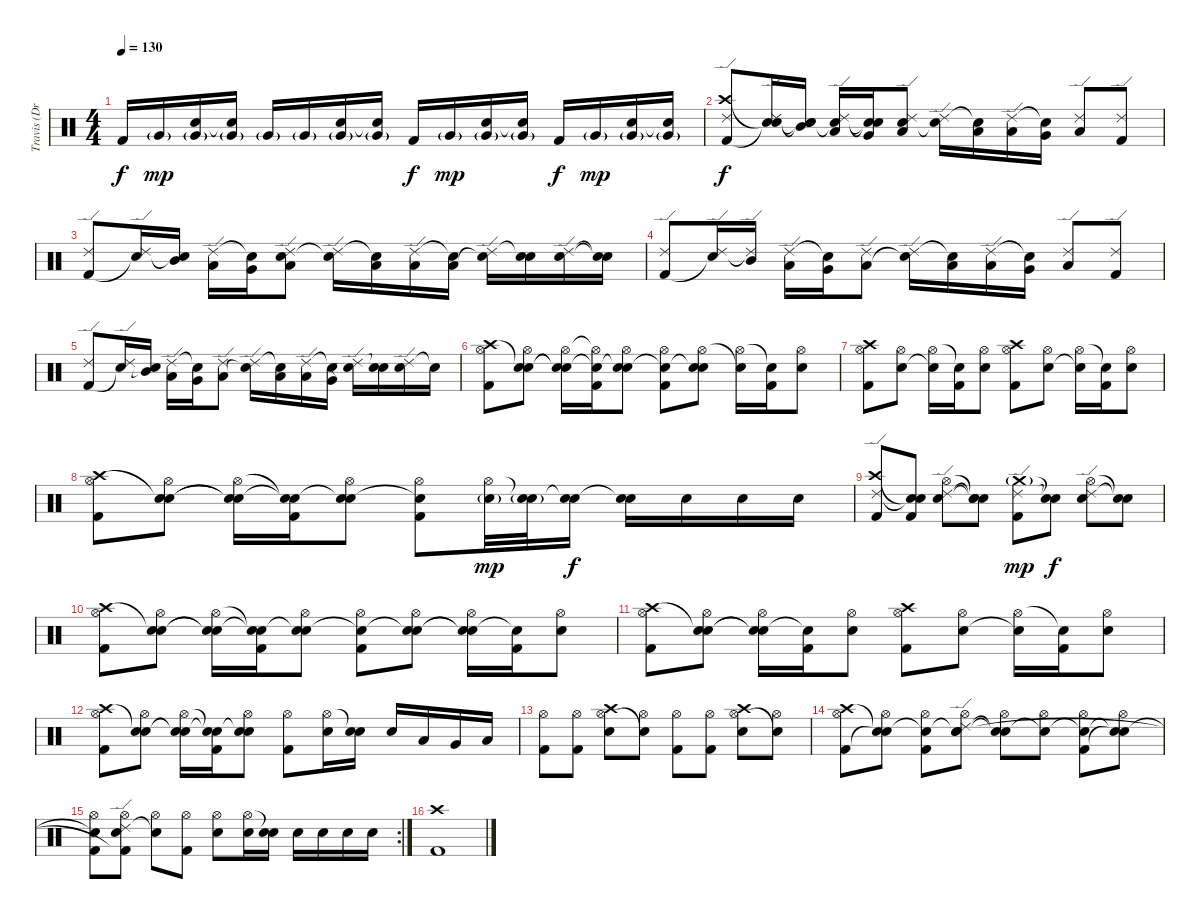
\track ("Travis (Drums)" "Travis (Dr") {instrument percussion}
\staff {score}
\articulation defaults
\ts (4 4)
\tempo 130
\clef neutral
\ks c "Kick (hit) 2".16{dy f} "Very Low Tom (hit)"{g}.16{dy mp}
("Electric Snare (hit)" "Very Low Tom (hit)"{g}).16 ("Snare (hit)"{t} "Very Low Tom (hit)"{g}).16 "Very Low Tom (hit)"{g}.16 "Very Low Tom (hit)"{g}.16 ("Electric Snare (hit)" "Very Low Tom (hit)"{g}).16 ("Snare (hit)"{t} "Very Low Tom (hit)"{g}).16 "Kick (hit) 2".16{dy f} "Very Low Tom (hit)"{g}.16{dy mp} ("Electric Snare (hit)" "Very Low Tom (hit)"{g}).16 ("Snare (hit)"{t} "Very Low Tom (hit)"{g}).16 "Kick (hit) 2".16{dy f} "Very Low Tom (hit)"{g}.16{dy mp} ("Electric Snare (hit)" "Very Low Tom (hit)"{g}).16 ("Snare (hit)"{t} "Very Low Tom (hit)"{g}).16 |
("Crash high (hit)" "Ride (edge) 2" "Kick (hit) 2").8{dy f} ("Snare (hit)"{t} "Ride (edge) 2" "Snare (hit)"{t}).16 ("Snare (hit)"{t} "Snare (hit)"{t} "Mid Tom (hit)").16 ("Snare (hit)"{t} "Ride (edge) 2" "Low Tom (hit)").16 ("Snare (hit)"{t} "Snare (hit)"{t} "Very Low Tom (hit)").16 ("Ride (edge) 2" "Electric Snare (hit)" "Low Floor Tom (hit)").8 ("Ride (edge) 2" "Snare (hit)"{t}).16 ("Snare (hit)"{t} "Low Tom (hit)").16 ("Ride (edge) 2" "Low Tom (hit)").16 ("Snare (hit)"{t} "Very Low Tom (hit)").16 ("Ride (edge) 2" "Low Floor Tom (hit)").8 ("Ride (edge) 2" "Kick (hit) 2").8 |
("Ride (edge) 2" "Kick (hit) 2").8 ("Ride (edge) 2" "Snare (hit)"{t}).16 ("Snare (hit)"{t} "Mid Tom (hit)").16 ("Ride (edge) 2" "Low Tom (hit)").16 ("Snare (hit)"{t} "Very Low Tom (hit)").16 ("Ride (edge) 2" "Electric Snare (hit)" "Low Floor Tom (hit)").8 ("Ride (edge) 2" "Snare (hit)"{t}).16 ("Snare (hit)"{t} "Low Tom (hit)").16 ("Ride (edge) 2" "Low Tom (hit)").16 ("Snare (hit)"{t} "Low Tom (hit)").16 ("Ride (edge) 2" "Electric Snare (hit)"{t}).16 ("Snare (hit)"{t} "Electric Snare (hit)").16 ("Ride (edge) 2" "Electric Snare (hit)").16 ("Snare (hit)"{t} "Snare (hit)"{t}).16 |
("Ride (edge) 2" "Kick (hit) 2").8 ("Ride (edge) 2" "Snare (hit)"{t}).16 ("Ride (edge) 2"{t} "Mid Tom (hit)").16 ("Ride (edge) 2" "Low Tom (hit)").16 ("Snare (hit)"{t} "Very Low Tom (hit)").16 ("Ride (edge) 2" "Low Floor Tom (hit)").8 ("Ride (edge) 2" "Snare (hit)"{t}).16 ("Snare (hit)"{t} "Low Tom (hit)").16 ("Ride (edge) 2" "Low Tom (hit)").16 ("Snare (hit)"{t} "Very Low Tom (hit)").16 ("Ride (edge) 2" "Low Floor Tom (hit)").8 ("Ride (edge) 2" "Kick (hit) 2").8 |
("Ride (edge) 2" "Kick (hit) 2").8 ("Ride (edge) 2" "Snare (hit)"{t}).16 ("Snare (hit)"{t} "Mid Tom (hit)").16 ("Ride (edge) 2" "Low Tom (hit)").16 ("Snare (hit)"{t} "Very Low Tom (hit)").16 ("Ride (edge) 2" "Low Floor Tom (hit)").8 ("Ride (edge) 2" "Snare (hit)"{t}).16 ("Snare (hit)"{t} "Low Tom (hit)").16 ("Ride (edge) 2" "Low Tom (hit)").16 ("Snare (hit)"{t} "Very Low Tom (hit)").16 ("Ride (edge) 2" "Snare (hit)"{t}).16 ("Snare (hit)"{t} "Electric Snare (hit)").16 ("Ride (edge) 2" "Electric Snare (hit)").16 "Snare (hit)"{t}.16 |
("Crash high (hit)" "Hi-Hat (open)" "Kick (hit) 2").8 ("Snare (hit)"{t} "Hi-Hat (open)" "Electric Snare (hit)").8 ("Snare (hit)"{t} "Hi-Hat (open)" "Snare (hit)"{t}).16 ("Snare (hit)"{t} "Hi-Hat (open)"{t} "Kick (hit) 2").16 ("Snare (hit)"{t} "Hi-Hat (open)" "Electric Snare (hit)").8 ("Snare (hit)"{t} "Hi-Hat (open)" "Kick (hit) 2").8 ("Snare (hit)"{t} "Hi-Hat (open)" "Electric Snare (hit)").8 ("Hi-Hat (open)" "Snare (hit)"{t}).16 ("Snare (hit)"{t} "Kick (hit) 2").16 ("Hi-Hat (open)" "Electric Snare (hit)").8 |
("Crash high (hit)" "Hi-Hat (open)" "Kick (hit) 2").8 ("Hi-Hat (open)" "Electric Snare (hit)").8 ("Hi-Hat (open)" "Snare (hit)"{t}).16 ("Snare (hit)"{t} "Kick (hit) 2").16 ("Hi-Hat (open)" "Electric Snare (hit)").8 ("Crash high (hit)" "Hi-Hat (open)" "Kick (hit) 2").8 ("Hi-Hat (open)" "Electric Snare (hit)").8 ("Hi-Hat (open)" "Snare (hit)"{t}).16 ("Snare (hit)"{t} "Kick (hit) 2").16 ("Hi-Hat (open)" "Electric Snare (hit)").8 |
("Crash high (hit)" "Hi-Hat (open)" "Kick (hit) 2").8 ("Snare (hit)"{t} "Hi-Hat (open)" "Electric Snare (hit)").8 ("Snare (hit)"{t} "Hi-Hat (open)" "Snare (hit)"{t}).16 ("Snare (hit)"{t} "Snare (hit)"{t} "Kick (hit) 2").16 ("Snare (hit)"{t} "Hi-Hat (open)" "Electric Snare (hit)").8 ("Snare (hit)"{t} "Hi-Hat (open)" "Kick (hit) 2").8 ("Hi-Hat (open)" "Electric Snare (hit)"{g}).32{dy mp} ("Snare (hit)"{t} "Electric Snare (hit)"{g}).32 ("Snare (hit)"{t} "Electric Snare (hit)").16{dy f} ("Snare (hit)"{t} "Electric Snare (hit)").16 "Electric Snare (hit)".16 "Electric Snare (hit)".16 "Electric Snare (hit)".16 |
("Crash high (hit)" "Ride (edge) 2" "Kick (hit) 2").8 ("Snare (hit)"{t} "Snare (hit)"{t} "Kick (hit) 2").8 ("Hi-Hat (open)" "Ride (edge) 2" "Electric Snare (hit)").8 ("Snare (hit)"{t} "Snare (hit)"{t} "Snare (hit)"{t}).8 ("Crash medium (hit)"{g} "Ride (edge) 2" "Kick (hit) 2").8{dy mp} ("Snare (hit)"{t} "Snare (hit)"{t}).8{dy f} ("Hi-Hat (open)" "Ride (edge) 2" "Electric Snare (hit)").8 ("Snare (hit)"{t} "Snare (hit)"{t}).8 |
("Crash high (hit)" "Hi-Hat (open)" "Kick (hit) 2").8 ("Snare (hit)"{t} "Hi-Hat (open)" "Electric Snare (hit)").8 ("Snare (hit)"{t} "Hi-Hat (open)" "Snare (hit)"{t}).16 ("Snare (hit)"{t} "Snare (hit)"{t} "Kick (hit) 2").16 ("Snare (hit)"{t} "Hi-Hat (open)" "Electric Snare (hit)").8 ("Snare (hit)"{t} "Hi-Hat (open)" "Kick (hit) 2").8 ("Snare (hit)"{t} "Hi-Hat (open)" "Electric Snare (hit)").8 ("Snare (hit)"{t} "Hi-Hat (open)" "Snare (hit)"{t}).16 ("Snare (hit)"{t} "Kick (hit) 2").16 ("Hi-Hat (open)" "Electric Snare (hit)").8 |
("Crash high (hit)" "Hi-Hat (open)" "Kick (hit) 2").8 ("Snare (hit)"{t} "Hi-Hat (open)" "Electric Snare (hit)").8 ("Snare (hit)"{t} "Hi-Hat (open)" "Snare (hit)"{t}).16 ("Snare (hit)"{t} "Kick (hit) 2").16 ("Hi-Hat (open)" "Electric Snare (hit)").8 ("Crash high (hit)" "Hi-Hat (open)" "Kick (hit) 2").8 ("Hi-Hat (open)" "Electric Snare (hit)").8 ("Hi-Hat (open)" "Snare (hit)"{t}).16 ("Snare (hit)"{t} "Kick (hit) 2").16 ("Hi-Hat (open)" "Electric Snare (hit)").8 |
("Crash high (hit)" "Hi-Hat (open)" "Kick (hit) 2").8 ("Snare (hit)"{t} "Hi-Hat (open)" "Electric Snare (hit)").8 ("Snare (hit)"{t} "Hi-Hat (open)" "Snare (hit)"{t}).16 ("Snare (hit)"{t} "Snare (hit)"{t} "Kick (hit) 2").16 ("Snare (hit)"{t} "Hi-Hat (open)" "Electric Snare (hit)").8 ("Hi-Hat (open)" "Kick (hit) 2").8 ("Hi-Hat (open)" "Electric Snare (hit)").16 ("Snare (hit)"{t} "Electric Snare (hit)").16 "Electric Snare (hit)".16 "Low Tom (hit)".16 "Very Low Tom (hit)".16 "Low Floor Tom (hit)".16 |
("Hi-Hat (open)" "Kick (hit) 2").8 ("Hi-Hat (open)" "Kick (hit) 2").8 ("Crash high (hit)" "Hi-Hat (open)" "Electric Snare (hit)").8 ("Hi-Hat (open)" "Snare (hit)"{t}).8 ("Hi-Hat (open)" "Kick (hit) 2").8 ("Hi-Hat (open)" "Kick (hit) 2").8 ("Crash high (hit)" "Hi-Hat (open)" "Electric Snare (hit)").8 ("Hi-Hat (open)" "Snare (hit)"{t}).8 |
("Crash high (hit)" "Hi-Hat (open)" "Kick (hit) 2").8 ("Snare (hit)"{t} "Hi-Hat (open)" "Snare (hit)"{t}).8 ("Snare (hit)"{t} "Hi-Hat (open)" "Kick (hit) 2").8 ("Snare (hit)"{t} "Hi-Hat (open)" "Ride (edge) 2" "Electric Snare (hit)").8 ("Snare (hit)"{t} "Hi-Hat (open)" "Snare (hit)"{t}).8 ("Snare (hit)"{t} "Hi-Hat (open)").8 ("Snare (hit)"{t} "Hi-Hat (open)" "Kick (hit) 2").8 ("Snare (hit)"{t} "Hi-Hat (open)" "Snare (hit)"{t}).8 |
\rc 2
("Snare (hit)"{t} "Hi-Hat (open)" "Kick (hit) 2").8 ("Hi-Hat (open)" "Ride (edge) 2" "Electric Snare (hit)" "Kick (hit) 2"{t}).8 ("Hi-Hat (open)" "Snare (hit)"{t}).8 ("Hi-Hat (open)" "Kick (hit) 2").8 ("Hi-Hat (open)" "Electric Snare (hit)").8 ("Hi-Hat (open)" "Electric Snare (hit)").16 ("Snare (hit)"{t} "Electric Snare (hit)").16 "Electric Snare (hit)".16 "Electric Snare (hit)".16 "Electric Snare (hit)".16 "Electric Snare (hit)".16 |
("Crash high (hit)" "Kick (hit) 2").1
